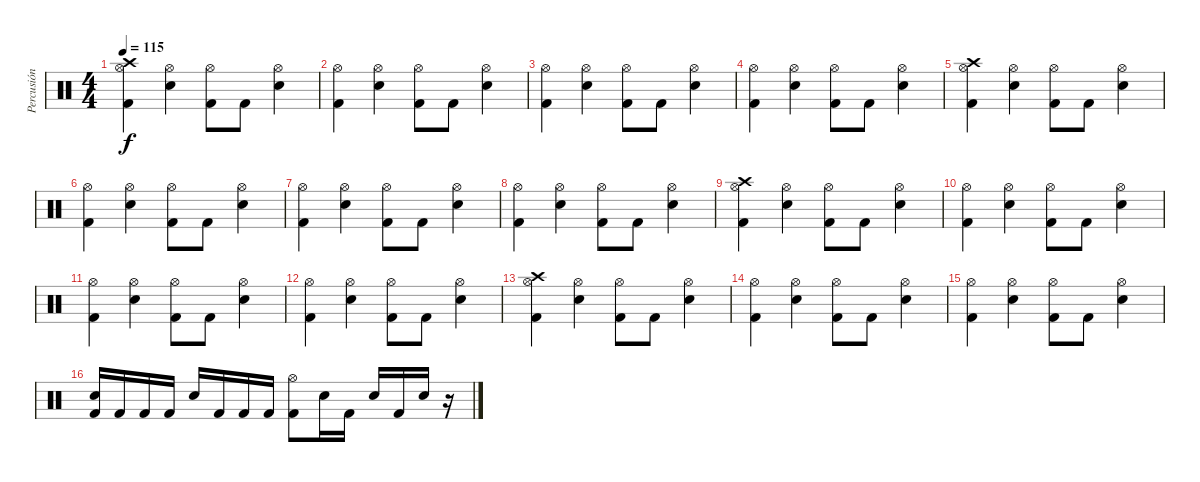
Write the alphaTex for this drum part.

\track ("Percusión" "Percusión") {instrument percussion}
\staff {score}
\articulation defaults
\ts (4 4)
\tempo 115
\clef neutral
\ks c
("Crash high (hit)" "Hi-Hat (open)" "Kick (hit) 2").4{dy f} ("Hi-Hat (open)" "Electric Snare (hit)").4 ("Hi-Hat (open)" "Kick (hit) 2").8 "Kick (hit) 2".8 ("Hi-Hat (open)" "Electric Snare (hit)").4 |
("Hi-Hat (open)" "Kick (hit) 2").4 ("Hi-Hat (open)" "Electric Snare (hit)").4 ("Hi-Hat (open)" "Kick (hit) 2").8 "Kick (hit) 2".8 ("Hi-Hat (open)" "Electric Snare (hit)").4 |
("Hi-Hat (open)" "Kick (hit) 2").4 ("Hi-Hat (open)" "Electric Snare (hit)").4 ("Hi-Hat (open)" "Kick (hit) 2").8 "Kick (hit) 2".8 ("Hi-Hat (open)" "Electric Snare (hit)").4 |
("Hi-Hat (open)" "Kick (hit) 2").4 ("Hi-Hat (open)" "Electric Snare (hit)").4 ("Hi-Hat (open)" "Kick (hit) 2").8 "Kick (hit) 2".8 ("Hi-Hat (open)" "Electric Snare (hit)").4 |
("Crash high (hit)" "Hi-Hat (open)" "Kick (hit) 2").4 ("Hi-Hat (open)" "Electric Snare (hit)").4 ("Hi-Hat (open)" "Kick (hit) 2").8 "Kick (hit) 2".8 ("Hi-Hat (open)" "Electric Snare (hit)").4 |
("Hi-Hat (open)" "Kick (hit) 2").4 ("Hi-Hat (open)" "Electric Snare (hit)").4 ("Hi-Hat (open)" "Kick (hit) 2").8 "Kick (hit) 2".8 ("Hi-Hat (open)" "Electric Snare (hit)").4 |
("Hi-Hat (open)" "Kick (hit) 2").4 ("Hi-Hat (open)" "Electric Snare (hit)").4 ("Hi-Hat (open)" "Kick (hit) 2").8 "Kick (hit) 2".8 ("Hi-Hat (open)" "Electric Snare (hit)").4 |
("Hi-Hat (open)" "Kick (hit) 2").4 ("Hi-Hat (open)" "Electric Snare (hit)").4 ("Hi-Hat (open)" "Kick (hit) 2").8 "Kick (hit) 2".8 ("Hi-Hat (open)" "Electric Snare (hit)").4 |
("Crash high (hit)" "Hi-Hat (open)" "Kick (hit) 2").4 ("Hi-Hat (open)" "Electric Snare (hit)").4 ("Hi-Hat (open)" "Kick (hit) 2").8 "Kick (hit) 2".8 ("Hi-Hat (open)" "Electric Snare (hit)").4 |
("Hi-Hat (open)" "Kick (hit) 2").4 ("Hi-Hat (open)" "Electric Snare (hit)").4 ("Hi-Hat (open)" "Kick (hit) 2").8 "Kick (hit) 2".8 ("Hi-Hat (open)" "Electric Snare (hit)").4 |
("Hi-Hat (open)" "Kick (hit) 2").4 ("Hi-Hat (open)" "Electric Snare (hit)").4 ("Hi-Hat (open)" "Kick (hit) 2").8 "Kick (hit) 2".8 ("Hi-Hat (open)" "Electric Snare (hit)").4 |
("Hi-Hat (open)" "Kick (hit) 2").4 ("Hi-Hat (open)" "Electric Snare (hit)").4 ("Hi-Hat (open)" "Kick (hit) 2").8 "Kick (hit) 2".8 ("Hi-Hat (open)" "Electric Snare (hit)").4 |
("Crash high (hit)" "Hi-Hat (open)" "Kick (hit) 2").4 ("Hi-Hat (open)" "Electric Snare (hit)").4 ("Hi-Hat (open)" "Kick (hit) 2").8 "Kick (hit) 2".8 ("Hi-Hat (open)" "Electric Snare (hit)").4 |
("Hi-Hat (open)" "Kick (hit) 2").4 ("Hi-Hat (open)" "Electric Snare (hit)").4 ("Hi-Hat (open)" "Kick (hit) 2").8 "Kick (hit) 2".8 ("Hi-Hat (open)" "Electric Snare (hit)").4 |
("Hi-Hat (open)" "Kick (hit) 2").4 ("Hi-Hat (open)" "Electric Snare (hit)").4 ("Hi-Hat (open)" "Kick (hit) 2").8 "Kick (hit) 2".8 ("Hi-Hat (open)" "Electric Snare (hit)").4 |
("Electric Snare (hit)" "Kick (hit) 2").16 "Kick (hit) 2".16 "Kick (hit) 2".16 "Kick (hit) 2".16 "Electric Snare (hit)".16 "Kick (hit) 2".16 "Kick (hit) 2".16 "Kick (hit) 2".16 ("Hi-Hat (open)" "Kick (hit) 2").8 "Electric Snare (hit)".16 "Kick (hit) 2".16 "Electric Snare (hit)".16 "Kick (hit) 2".16 "Electric Snare (hit)".16 r.16
